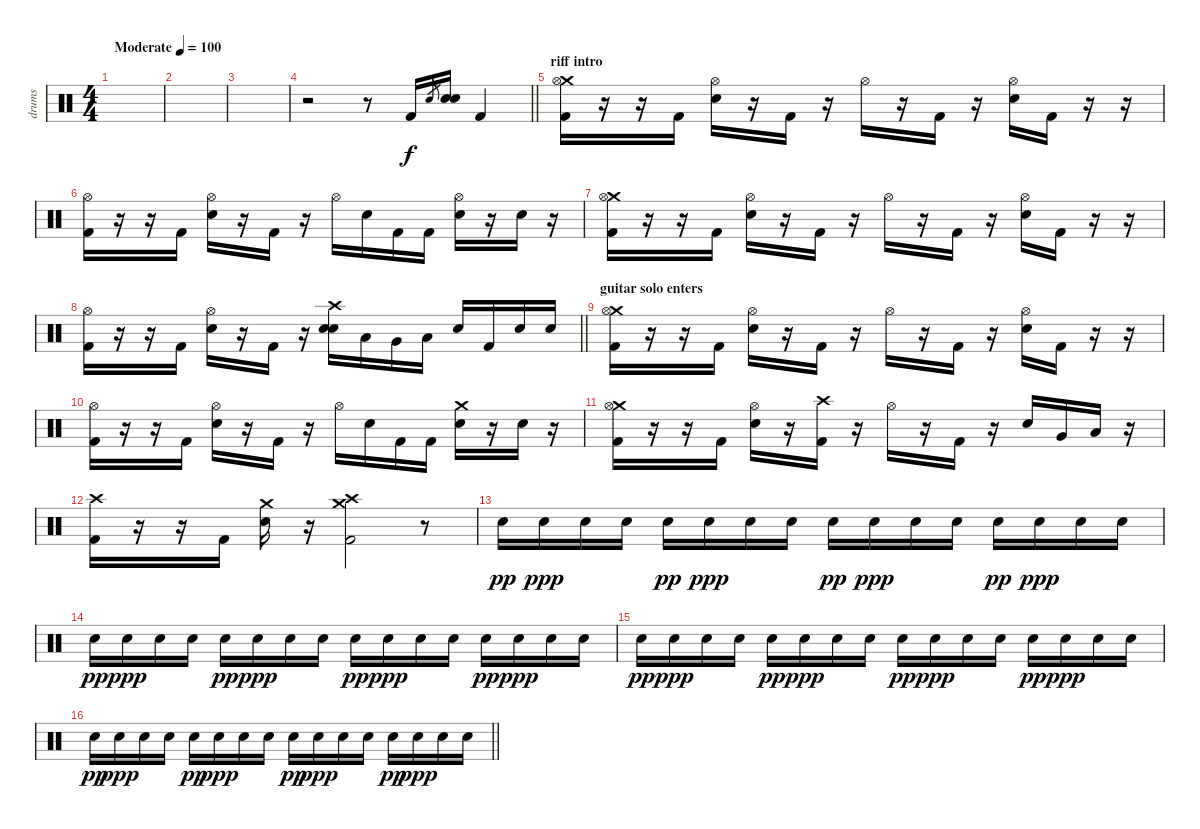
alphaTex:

\track ("drums" "drums") {instrument percussion}
\staff {score}
\articulation defaults
\ts (4 4)
\tempo (100 "Moderate")
\clef neutral
\ks c
|
|
|
\barLineRight lightlight
r.2 r.8 "Kick (hit) 2".16 "Electric Snare (hit)".8{gr} ("Electric Snare (hit)" "Electric Snare (hit)").16 "Kick (hit) 2".4 |
\section ("" "riff intro")
("Crash medium (hit)" "Hi-Hat (open)" "Kick (hit) 2").16 r.16 r.16 "Kick (hit) 2".16 ("Hi-Hat (open)" "Electric Snare (hit)").16 r.16 "Kick (hit) 2".16 r.16 "Hi-Hat (open)".16 r.16 "Kick (hit) 2".16 r.16 ("Hi-Hat (open)" "Electric Snare (hit)").16 "Kick (hit) 2".16 r.16 r.16 |
("Hi-Hat (open)" "Kick (hit) 2").16 r.16 r.16 "Kick (hit) 2".16 ("Hi-Hat (open)" "Electric Snare (hit)").16 r.16 "Kick (hit) 2".16 r.16 "Hi-Hat (open)".16 "Electric Snare (hit)".16 "Kick (hit) 2".16 "Kick (hit) 2".16 ("Hi-Hat (open)" "Electric Snare (hit)").16 r.16 "Electric Snare (hit)".16 r.16 |
("Crash medium (hit)" "Hi-Hat (open)" "Kick (hit) 2").16 r.16 r.16 "Kick (hit) 2".16 ("Hi-Hat (open)" "Electric Snare (hit)").16 r.16 "Kick (hit) 2".16 r.16 "Hi-Hat (open)".16 r.16 "Kick (hit) 2".16 r.16 ("Hi-Hat (open)" "Electric Snare (hit)").16 "Kick (hit) 2".16 r.16 r.16 |
\barLineRight lightlight
("Hi-Hat (open)" "Kick (hit) 2").16 r.16 r.16 "Kick (hit) 2".16 ("Hi-Hat (open)" "Electric Snare (hit)").16 r.16 "Kick (hit) 2".16 r.16 ("Crash high (hit)" "Electric Snare (hit)" "Electric Snare (hit)").16 "Low Tom (hit)".16 "Very Low Tom (hit)".16 "Low Floor Tom (hit)".16 "Electric Snare (hit)".16 "Kick (hit) 2".16 "Electric Snare (hit)".16 "Electric Snare (hit)".16 |
\section ("" "guitar solo enters")
("Crash medium (hit)" "Hi-Hat (open)" "Kick (hit) 2").16 r.16 r.16 "Kick (hit) 2".16 ("Hi-Hat (open)" "Electric Snare (hit)").16 r.16 "Kick (hit) 2".16 r.16 "Hi-Hat (open)".16 r.16 "Kick (hit) 2".16 r.16 ("Hi-Hat (open)" "Electric Snare (hit)").16 "Kick (hit) 2".16 r.16 r.16 |
("Hi-Hat (open)" "Kick (hit) 2").16 r.16 r.16 "Kick (hit) 2".16 ("Hi-Hat (open)" "Electric Snare (hit)").16 r.16 "Kick (hit) 2".16 r.16 "Hi-Hat (open)".16 "Electric Snare (hit)".16 "Kick (hit) 2".16 "Kick (hit) 2".16 ("Crash medium (hit)" "Electric Snare (hit)").16 r.16 "Electric Snare (hit)".16 r.16 |
("Crash medium (hit)" "Hi-Hat (open)" "Kick (hit) 2").16 r.16 r.16 "Kick (hit) 2".16 ("Hi-Hat (open)" "Electric Snare (hit)").16 r.16 ("Crash high (hit)" "Kick (hit) 2").16 r.16 "Hi-Hat (open)".16 r.16 "Kick (hit) 2".16 r.16 "Electric Snare (hit)".16 "Very Low Tom (hit)".16 "Low Floor Tom (hit)".16 r.16 |
("Crash high (hit)" "Kick (hit) 2").16 r.16 r.16 "Kick (hit) 2".16 ("Crash medium (hit)" "Electric Snare (hit)").16 r.16 ("Crash medium (hit)" "Crash high (hit)" "Kick (hit) 2").2 r.8 |
"Snare (hit) 2".16{dy pp} "Snare (hit) 2".16{dy ppp} "Snare (hit) 2".16 "Snare (hit) 2".16 "Snare (hit) 2".16{dy pp} "Snare (hit) 2".16{dy ppp} "Snare (hit) 2".16 "Snare (hit) 2".16 "Snare (hit) 2".16{dy pp} "Snare (hit) 2".16{dy ppp} "Snare (hit) 2".16 "Snare (hit) 2".16 "Snare (hit) 2".16{dy pp} "Snare (hit) 2".16{dy ppp} "Snare (hit) 2".16 "Snare (hit) 2".16 |
"Snare (hit) 2".16{dy pp} "Snare (hit) 2".16{dy ppp} "Snare (hit) 2".16 "Snare (hit) 2".16 "Snare (hit) 2".16{dy pp} "Snare (hit) 2".16{dy ppp} "Snare (hit) 2".16 "Snare (hit) 2".16 "Snare (hit) 2".16{dy pp} "Snare (hit) 2".16{dy ppp} "Snare (hit) 2".16 "Snare (hit) 2".16 "Snare (hit) 2".16{dy pp} "Snare (hit) 2".16{dy ppp} "Snare (hit) 2".16 "Snare (hit) 2".16 |
"Snare (hit) 2".16{dy pp} "Snare (hit) 2".16{dy ppp} "Snare (hit) 2".16 "Snare (hit) 2".16 "Snare (hit) 2".16{dy pp} "Snare (hit) 2".16{dy ppp} "Snare (hit) 2".16 "Snare (hit) 2".16 "Snare (hit) 2".16{dy pp} "Snare (hit) 2".16{dy ppp} "Snare (hit) 2".16 "Snare (hit) 2".16 "Snare (hit) 2".16{dy pp} "Snare (hit) 2".16{dy ppp} "Snare (hit) 2".16 "Snare (hit) 2".16 |
\barLineRight lightlight "Snare (hit) 2".16{dy pp} "Snare (hit) 2".16{dy ppp} "Snare (hit) 2".16 "Snare (hit) 2".16 "Snare (hit) 2".16{dy pp} "Snare (hit) 2".16{dy ppp} "Snare (hit) 2".16 "Snare (hit) 2".16 "Snare (hit) 2".16{dy pp} "Snare (hit) 2".16{dy ppp} "Snare (hit) 2".16 "Snare (hit) 2".16 "Snare (hit) 2".16{dy pp} "Snare (hit) 2".16{dy ppp} "Snare (hit) 2".16 "Snare (hit) 2".16
